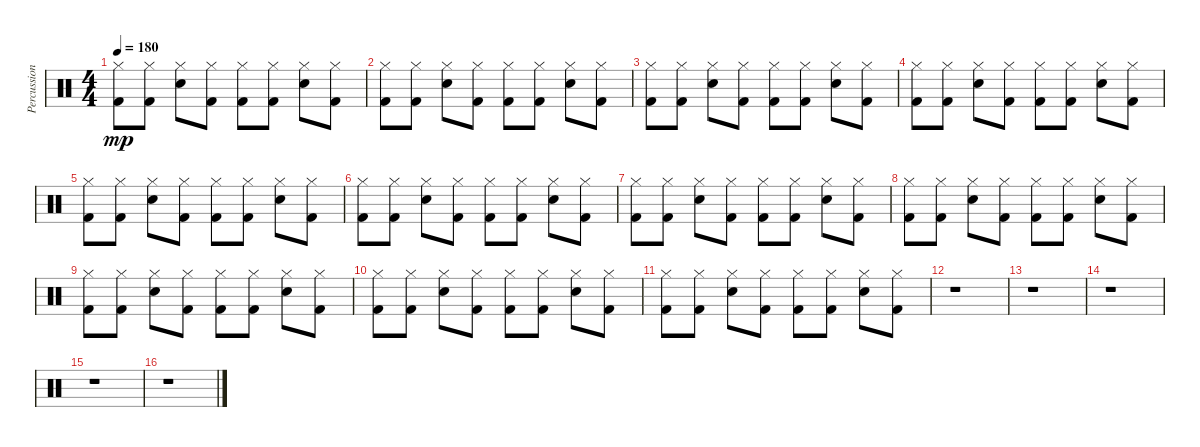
\track ("Percussion" "Percussion") {instrument percussion}
\staff {score}
\articulation defaults
\ts (4 4)
\tempo 180
\clef neutral
\ks c
("Hi-Hat (closed)" "Kick (hit) 2").8{dy mp} ("Hi-Hat (closed)" "Kick (hit) 2").8 ("Hi-Hat (closed)" "Snare (hit) 2").8 ("Hi-Hat (closed)" "Kick (hit) 2").8 ("Hi-Hat (closed)" "Kick (hit) 2").8 ("Hi-Hat (closed)" "Kick (hit) 2").8 ("Hi-Hat (closed)" "Snare (hit) 2").8 ("Hi-Hat (closed)" "Kick (hit) 2").8 |
("Hi-Hat (closed)" "Kick (hit) 2").8 ("Hi-Hat (closed)" "Kick (hit) 2").8 ("Hi-Hat (closed)" "Snare (hit) 2").8 ("Hi-Hat (closed)" "Kick (hit) 2").8 ("Hi-Hat (closed)" "Kick (hit) 2").8 ("Hi-Hat (closed)" "Kick (hit) 2").8 ("Hi-Hat (closed)" "Snare (hit) 2").8 ("Hi-Hat (closed)" "Kick (hit) 2").8 |
("Hi-Hat (closed)" "Kick (hit) 2").8 ("Hi-Hat (closed)" "Kick (hit) 2").8 ("Hi-Hat (closed)" "Snare (hit) 2").8 ("Hi-Hat (closed)" "Kick (hit) 2").8 ("Hi-Hat (closed)" "Kick (hit) 2").8 ("Hi-Hat (closed)" "Kick (hit) 2").8 ("Hi-Hat (closed)" "Snare (hit) 2").8 ("Hi-Hat (closed)" "Kick (hit) 2").8 |
("Hi-Hat (closed)" "Kick (hit) 2").8 ("Hi-Hat (closed)" "Kick (hit) 2").8 ("Hi-Hat (closed)" "Snare (hit) 2").8 ("Hi-Hat (closed)" "Kick (hit) 2").8 ("Hi-Hat (closed)" "Kick (hit) 2").8 ("Hi-Hat (closed)" "Kick (hit) 2").8 ("Hi-Hat (closed)" "Snare (hit) 2").8 ("Hi-Hat (closed)" "Kick (hit) 2").8 |
("Hi-Hat (closed)" "Kick (hit) 2").8 ("Hi-Hat (closed)" "Kick (hit) 2").8 ("Hi-Hat (closed)" "Snare (hit) 2").8 ("Hi-Hat (closed)" "Kick (hit) 2").8 ("Hi-Hat (closed)" "Kick (hit) 2").8 ("Hi-Hat (closed)" "Kick (hit) 2").8 ("Hi-Hat (closed)" "Snare (hit) 2").8 ("Hi-Hat (closed)" "Kick (hit) 2").8 |
("Hi-Hat (closed)" "Kick (hit) 2").8 ("Hi-Hat (closed)" "Kick (hit) 2").8 ("Hi-Hat (closed)" "Snare (hit) 2").8 ("Hi-Hat (closed)" "Kick (hit) 2").8 ("Hi-Hat (closed)" "Kick (hit) 2").8 ("Hi-Hat (closed)" "Kick (hit) 2").8 ("Hi-Hat (closed)" "Snare (hit) 2").8 ("Hi-Hat (closed)" "Kick (hit) 2").8 |
("Hi-Hat (closed)" "Kick (hit) 2").8 ("Hi-Hat (closed)" "Kick (hit) 2").8 ("Hi-Hat (closed)" "Snare (hit) 2").8 ("Hi-Hat (closed)" "Kick (hit) 2").8 ("Hi-Hat (closed)" "Kick (hit) 2").8 ("Hi-Hat (closed)" "Kick (hit) 2").8 ("Hi-Hat (closed)" "Snare (hit) 2").8 ("Hi-Hat (closed)" "Kick (hit) 2").8 |
("Hi-Hat (closed)" "Kick (hit) 2").8 ("Hi-Hat (closed)" "Kick (hit) 2").8 ("Hi-Hat (closed)" "Snare (hit) 2").8 ("Hi-Hat (closed)" "Kick (hit) 2").8 ("Hi-Hat (closed)" "Kick (hit) 2").8 ("Hi-Hat (closed)" "Kick (hit) 2").8 ("Hi-Hat (closed)" "Snare (hit) 2").8 ("Hi-Hat (closed)" "Kick (hit) 2").8 |
("Hi-Hat (closed)" "Kick (hit) 2").8 ("Hi-Hat (closed)" "Kick (hit) 2").8 ("Hi-Hat (closed)" "Snare (hit) 2").8 ("Hi-Hat (closed)" "Kick (hit) 2").8 ("Hi-Hat (closed)" "Kick (hit) 2").8 ("Hi-Hat (closed)" "Kick (hit) 2").8 ("Hi-Hat (closed)" "Snare (hit) 2").8 ("Hi-Hat (closed)" "Kick (hit) 2").8 |
("Hi-Hat (closed)" "Kick (hit) 2").8 ("Hi-Hat (closed)" "Kick (hit) 2").8 ("Hi-Hat (closed)" "Snare (hit) 2").8 ("Hi-Hat (closed)" "Kick (hit) 2").8 ("Hi-Hat (closed)" "Kick (hit) 2").8 ("Hi-Hat (closed)" "Kick (hit) 2").8 ("Hi-Hat (closed)" "Snare (hit) 2").8 ("Hi-Hat (closed)" "Kick (hit) 2").8 |
("Hi-Hat (closed)" "Kick (hit) 2").8 ("Hi-Hat (closed)" "Kick (hit) 2").8 ("Hi-Hat (closed)" "Snare (hit) 2").8 ("Hi-Hat (closed)" "Kick (hit) 2").8 ("Hi-Hat (closed)" "Kick (hit) 2").8 ("Hi-Hat (closed)" "Kick (hit) 2").8 ("Hi-Hat (closed)" "Snare (hit) 2").8 ("Hi-Hat (closed)" "Kick (hit) 2").8 |
r.1 |
r.1 |
r.1 |
r.1 |
r.1
